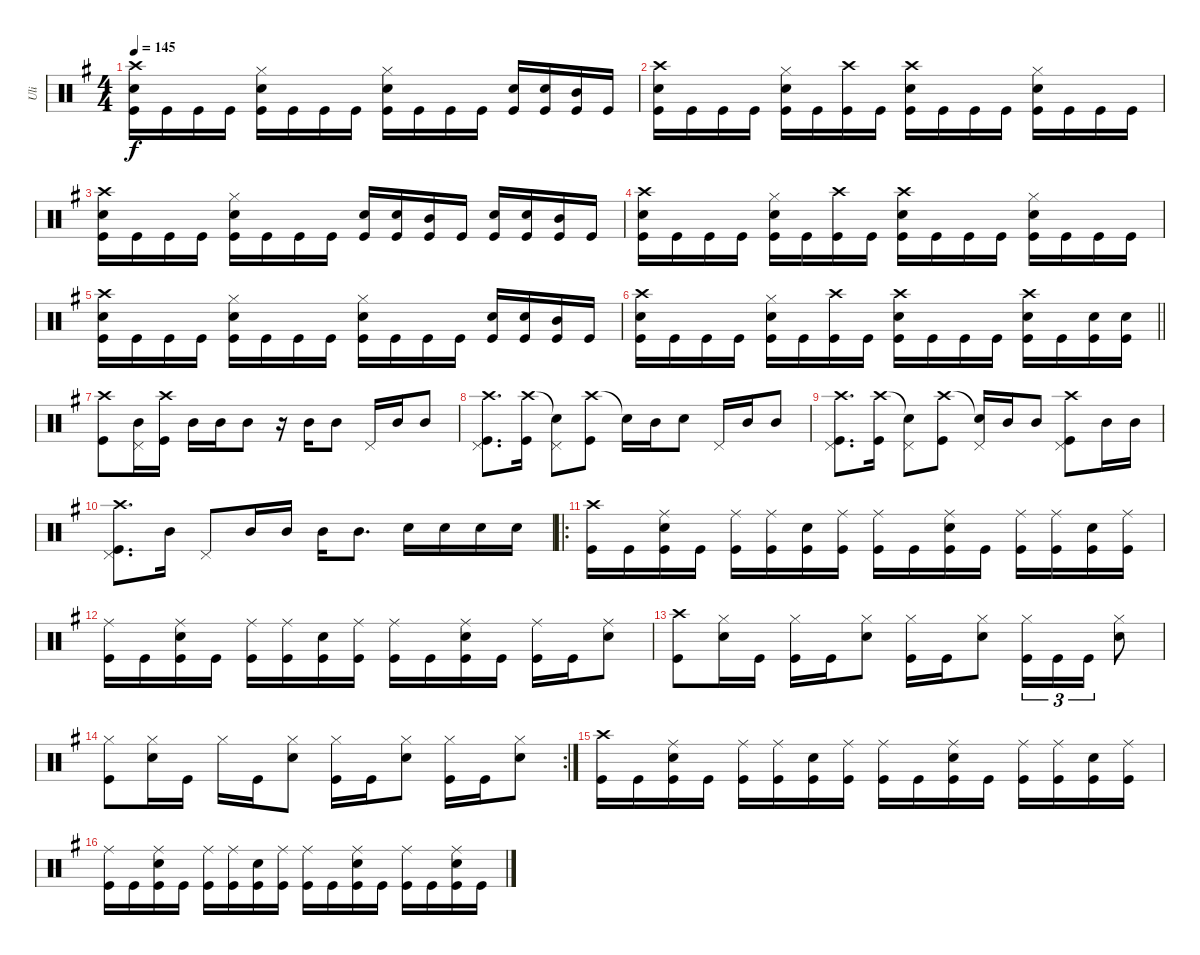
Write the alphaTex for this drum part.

\track ("Uli" "Uli") {instrument percussion}
\staff {score}
\articulation defaults
\ts (4 4)
\tempo 145
\clef neutral
\ks eminor
("Crash high (hit)" "Snare (hit) 2" "Kick (hit)").16{dy f} "Kick (hit)".16 "Kick (hit)".16 "Kick (hit)".16 ("Hi-Hat (closed)" "Snare (hit) 2" "Kick (hit)").16 "Kick (hit)".16 "Kick (hit)".16 "Kick (hit)".16 ("Hi-Hat (closed)" "Snare (hit) 2" "Kick (hit)").16 "Kick (hit)".16 "Kick (hit)".16 "Kick (hit)".16 ("Snare (hit) 2" "Kick (hit)").16 ("Snare (hit) 2" "Kick (hit)").16 ("Mid Tom (hit)" "Kick (hit)").16 "Kick (hit)".16 |
("Crash high (hit)" "Snare (hit) 2" "Kick (hit)").16 "Kick (hit)".16 "Kick (hit)".16 "Kick (hit)".16 ("Hi-Hat (closed)" "Snare (hit) 2" "Kick (hit)").16 "Kick (hit)".16 ("Crash high (hit)" "Kick (hit)").16 "Kick (hit)".16 ("Crash high (hit)" "Snare (hit) 2" "Kick (hit)").16 "Kick (hit)".16 "Kick (hit)".16 "Kick (hit)".16 ("Hi-Hat (closed)" "Snare (hit) 2" "Kick (hit)").16 "Kick (hit)".16 "Kick (hit)".16 "Kick (hit)".16 |
("Crash high (hit)" "Snare (hit) 2" "Kick (hit)").16 "Kick (hit)".16 "Kick (hit)".16 "Kick (hit)".16 ("Hi-Hat (closed)" "Snare (hit) 2" "Kick (hit)").16 "Kick (hit)".16 "Kick (hit)".16 "Kick (hit)".16 ("Snare (hit) 2" "Kick (hit)").16 ("Snare (hit) 2" "Kick (hit)").16 ("Mid Tom (hit)" "Kick (hit)").16 "Kick (hit)".16 ("Snare (hit) 2" "Kick (hit)").16 ("Snare (hit) 2" "Kick (hit)").16 ("Mid Tom (hit)" "Kick (hit)").16 "Kick (hit)".16 |
("Crash high (hit)" "Snare (hit) 2" "Kick (hit)").16 "Kick (hit)".16 "Kick (hit)".16 "Kick (hit)".16 ("Hi-Hat (closed)" "Snare (hit) 2" "Kick (hit)").16 "Kick (hit)".16 ("Crash high (hit)" "Kick (hit)").16 "Kick (hit)".16 ("Crash high (hit)" "Snare (hit) 2" "Kick (hit)").16 "Kick (hit)".16 "Kick (hit)".16 "Kick (hit)".16 ("Hi-Hat (closed)" "Snare (hit) 2" "Kick (hit)").16 "Kick (hit)".16 "Kick (hit)".16 "Kick (hit)".16 |
("Crash high (hit)" "Snare (hit) 2" "Kick (hit)").16 "Kick (hit)".16 "Kick (hit)".16 "Kick (hit)".16 ("Hi-Hat (closed)" "Snare (hit) 2" "Kick (hit)").16 "Kick (hit)".16 "Kick (hit)".16 "Kick (hit)".16 ("Hi-Hat (closed)" "Snare (hit) 2" "Kick (hit)").16 "Kick (hit)".16 "Kick (hit)".16 "Kick (hit)".16 ("Snare (hit) 2" "Kick (hit)").16 ("Snare (hit) 2" "Kick (hit)").16 ("Mid Tom (hit)" "Kick (hit)").16 "Kick (hit)".16 |
\barLineRight lightlight
("Crash high (hit)" "Snare (hit) 2" "Kick (hit)").16 "Kick (hit)".16 "Kick (hit)".16 "Kick (hit)".16 ("Hi-Hat (closed)" "Snare (hit) 2" "Kick (hit)").16 "Kick (hit)".16 ("Crash high (hit)" "Kick (hit)").16 "Kick (hit)".16 ("Crash high (hit)" "Snare (hit) 2" "Kick (hit)").16 "Kick (hit)".16 "Kick (hit)".16 "Kick (hit)".16 ("Crash high (hit)" "Snare (hit) 2" "Kick (hit)").16 "Kick (hit)".16 ("Snare (hit) 2" "Kick (hit)").16 ("Snare (hit) 2" "Kick (hit)").16 |
("Crash high (hit)" "Kick (hit)").8 ("Mid Tom (hit)" "Pedal Hi-Hat (hit)").16 ("Crash high (hit)" "Kick (hit)").16 "Mid Tom (hit)".16 "Mid Tom (hit)".16 "Mid Tom (hit)".8 r.16 "Mid Tom (hit)".16 "Mid Tom (hit)".8 "Pedal Hi-Hat (hit)".16 "Mid Tom (hit)".16 "Mid Tom (hit)".8 |
("Crash high (hit)" "Pedal Hi-Hat (hit)" "Kick (hit)").8{d} ("Crash high (hit)" "Kick (hit)").16 ("Snare (hit)"{t} "Pedal Hi-Hat (hit)").8 ("Crash high (hit)" "Kick (hit)").8 "Snare (hit)"{t}.16 "Mid Tom (hit)".16 "Snare (hit) 2".8 "Pedal Hi-Hat (hit)".16 "Mid Tom (hit)".16 "Mid Tom (hit)".8 |
("Crash high (hit)" "Pedal Hi-Hat (hit)" "Kick (hit)").8{d} ("Crash high (hit)" "Kick (hit)").16 ("Snare (hit)"{t} "Pedal Hi-Hat (hit)").8 ("Crash high (hit)" "Kick (hit)").8 ("Snare (hit)"{t} "Pedal Hi-Hat (hit)").16 "Mid Tom (hit)".16 "Mid Tom (hit)".8 ("Crash high (hit)" "Pedal Hi-Hat (hit)" "Kick (hit)").8 "Mid Tom (hit)".16 "Mid Tom (hit)".16 |
("Crash high (hit)" "Pedal Hi-Hat (hit)" "Kick (hit)").8{d} "Mid Tom (hit)".16 "Pedal Hi-Hat (hit)".8 "Mid Tom (hit)".16 "Mid Tom (hit)".16 "Mid Tom (hit)".16 "Mid Tom (hit)".8{d} "Snare (hit) 2".16 "Snare (hit) 2".16 "Snare (hit) 2".16 "Snare (hit) 2".16 |
\ro
("Crash high (hit)" "Kick (hit)").16 "Kick (hit)".16 ("Ride (middle)" "Snare (hit) 2" "Kick (hit)").16 "Kick (hit)".16 ("Ride (middle)" "Kick (hit)").16 ("Ride (middle)" "Kick (hit)").16 ("Snare (hit) 2" "Kick (hit)").16 ("Ride (middle)" "Kick (hit)").16 ("Ride (middle)" "Kick (hit)").16 "Kick (hit)".16 ("Ride (middle)" "Snare (hit) 2" "Kick (hit)").16 "Kick (hit)".16 ("Ride (middle)" "Kick (hit)").16 ("Ride (middle)" "Kick (hit)").16 ("Snare (hit) 2" "Kick (hit)").16 ("Ride (middle)" "Kick (hit)").16 |
("Ride (middle)" "Kick (hit)").16 "Kick (hit)".16 ("Ride (middle)" "Snare (hit) 2" "Kick (hit)").16 "Kick (hit)".16 ("Ride (middle)" "Kick (hit)").16 ("Ride (middle)" "Kick (hit)").16 ("Snare (hit) 2" "Kick (hit)").16 ("Ride (middle)" "Kick (hit)").16 ("Ride (middle)" "Kick (hit)").16 "Kick (hit)".16 ("Ride (middle)" "Snare (hit) 2" "Kick (hit)").16 "Kick (hit)".16 ("Ride (middle)" "Kick (hit)").16 "Kick (hit)".16 ("Ride (middle)" "Snare (hit) 2").8 |
("Crash high (hit)" "Kick (hit)").8 ("Hi-Hat (closed)" "Snare (hit) 2").16 "Kick (hit)".16 ("Hi-Hat (closed)" "Kick (hit)").16 "Kick (hit)".16 ("Hi-Hat (closed)" "Snare (hit) 2").8 ("Hi-Hat (closed)" "Kick (hit)").16 "Kick (hit)".16 ("Hi-Hat (closed)" "Snare (hit) 2").8 ("Hi-Hat (closed)" "Kick (hit)").16{tu (3 2)} "Kick (hit)".16{tu (3 2)} "Kick (hit)".16{tu (3 2)} ("Hi-Hat (closed)" "Snare (hit) 2").8 |
\rc 2
("Hi-Hat (closed)" "Kick (hit)").8 ("Hi-Hat (closed)" "Snare (hit) 2").16 "Kick (hit)".16 "Hi-Hat (closed)".16 "Kick (hit)".16 ("Hi-Hat (closed)" "Snare (hit) 2").8 ("Hi-Hat (closed)" "Kick (hit)").16 "Kick (hit)".16 ("Hi-Hat (closed)" "Snare (hit) 2").8 ("Hi-Hat (closed)" "Kick (hit)").16 "Kick (hit)".16 ("Hi-Hat (closed)" "Snare (hit) 2").8 |
("Crash high (hit)" "Kick (hit)").16 "Kick (hit)".16 ("Ride (middle)" "Snare (hit) 2" "Kick (hit)").16 "Kick (hit)".16 ("Ride (middle)" "Kick (hit)").16 ("Ride (middle)" "Kick (hit)").16 ("Snare (hit) 2" "Kick (hit)").16 ("Ride (middle)" "Kick (hit)").16 ("Ride (middle)" "Kick (hit)").16 "Kick (hit)".16 ("Ride (middle)" "Snare (hit) 2" "Kick (hit)").16 "Kick (hit)".16 ("Ride (middle)" "Kick (hit)").16 ("Ride (middle)" "Kick (hit)").16 ("Snare (hit) 2" "Kick (hit)").16 ("Ride (middle)" "Kick (hit)").16 |
("Ride (middle)" "Kick (hit)").16 "Kick (hit)".16 ("Ride (middle)" "Snare (hit) 2" "Kick (hit)").16 "Kick (hit)".16 ("Ride (middle)" "Kick (hit)").16 ("Ride (middle)" "Kick (hit)").16 ("Snare (hit) 2" "Kick (hit)").16 ("Ride (middle)" "Kick (hit)").16 ("Ride (middle)" "Kick (hit)").16 "Kick (hit)".16 ("Ride (middle)" "Snare (hit) 2" "Kick (hit)").16 "Kick (hit)".16 ("Ride (middle)" "Kick (hit)").16 "Kick (hit)".16 ("Ride (middle)" "Snare (hit) 2" "Kick (hit)").16 "Kick (hit)".16
